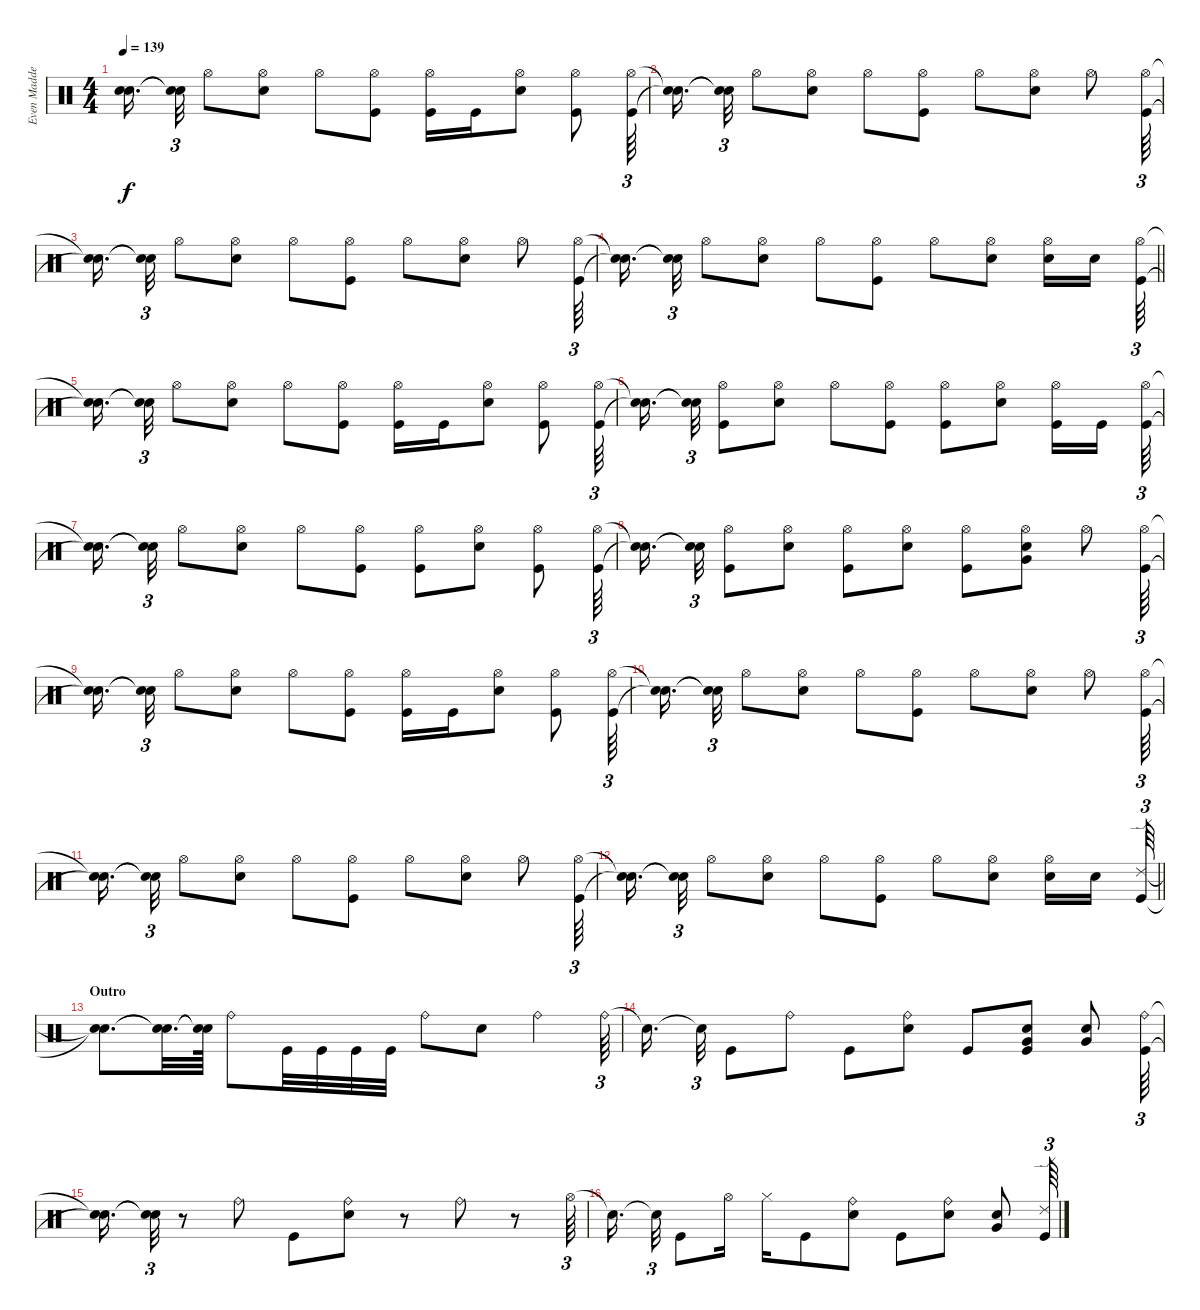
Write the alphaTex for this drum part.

\track ("Even Madden - Drums" "Even Madde") {instrument percussion}
\staff {score}
\articulation defaults
\ts (4 4)
\tempo 139
\clef neutral
\ks c
("Snare (hit)"{t} "Snare (hit)"{t}).16{d dy f beam splitsecondary} ("Snare (hit)"{t} "Snare (hit)"{t}).32{tu (3 2)} "Hi-Hat (open)".8 ("Hi-Hat (open)" "Snare (hit) 2").8 "Hi-Hat (open)".8 ("Hi-Hat (open)" "Kick (hit)").8 ("Hi-Hat (open)" "Kick (hit)").16 "Kick (hit)".16 ("Hi-Hat (open)" "Snare (hit) 2").8 ("Hi-Hat (open)" "Kick (hit)").8 ("Hi-Hat (open)" "Kick (hit)").64{tu (3 2)} |
("Snare (hit)"{t} "Snare (hit)"{t}).16{d beam splitsecondary} ("Snare (hit)"{t} "Snare (hit)"{t}).32{tu (3 2)} "Hi-Hat (open)".8 ("Hi-Hat (open)" "Snare (hit) 2").8 "Hi-Hat (open)".8 ("Hi-Hat (open)" "Kick (hit)").8 "Hi-Hat (open)".8 ("Hi-Hat (open)" "Snare (hit) 2").8 "Hi-Hat (open)".8 ("Hi-Hat (open)" "Kick (hit)").64{tu (3 2)} |
("Snare (hit)"{t} "Snare (hit)"{t}).16{d beam splitsecondary} ("Snare (hit)"{t} "Snare (hit)"{t}).32{tu (3 2)} "Hi-Hat (open)".8 ("Hi-Hat (open)" "Snare (hit) 2").8 "Hi-Hat (open)".8 ("Hi-Hat (open)" "Kick (hit)").8 "Hi-Hat (open)".8 ("Hi-Hat (open)" "Snare (hit) 2").8 "Hi-Hat (open)".8 ("Hi-Hat (open)" "Kick (hit)").64{tu (3 2)} |
\barLineRight lightlight
("Snare (hit)"{t} "Snare (hit)"{t}).16{d beam splitsecondary} ("Snare (hit)"{t} "Snare (hit)"{t}).32{tu (3 2)} "Hi-Hat (open)".8 ("Hi-Hat (open)" "Snare (hit) 2").8 "Hi-Hat (open)".8 ("Hi-Hat (open)" "Kick (hit)").8 "Hi-Hat (open)".8 ("Hi-Hat (open)" "Snare (hit) 2").8 ("Hi-Hat (open)" "Snare (hit) 2").16 "Snare (hit) 2".16{beam splitsecondary} ("Hi-Hat (open)" "Kick (hit)").64{tu (3 2)} |
("Snare (hit)"{t} "Snare (hit)"{t}).16{d beam splitsecondary} ("Snare (hit)"{t} "Snare (hit)"{t}).32{tu (3 2)} "Hi-Hat (open)".8 ("Hi-Hat (open)" "Snare (hit) 2").8 "Hi-Hat (open)".8 ("Hi-Hat (open)" "Kick (hit)").8 ("Hi-Hat (open)" "Kick (hit)").16 "Kick (hit)".16 ("Hi-Hat (open)" "Snare (hit) 2").8 ("Hi-Hat (open)" "Kick (hit)").8 ("Hi-Hat (open)" "Kick (hit)").64{tu (3 2)} |
("Snare (hit)"{t} "Snare (hit)"{t}).16{d beam splitsecondary} ("Snare (hit)"{t} "Snare (hit)"{t}).32{tu (3 2)} ("Hi-Hat (open)" "Kick (hit)").8 ("Hi-Hat (open)" "Snare (hit) 2").8 "Hi-Hat (open)".8 ("Hi-Hat (open)" "Kick (hit)").8 ("Hi-Hat (open)" "Kick (hit)").8 ("Hi-Hat (open)" "Snare (hit) 2").8 ("Hi-Hat (open)" "Kick (hit)").16 "Kick (hit)".16{beam splitsecondary} ("Hi-Hat (open)" "Kick (hit)").64{tu (3 2)} |
("Snare (hit)"{t} "Snare (hit)"{t}).16{d beam splitsecondary} ("Snare (hit)"{t} "Snare (hit)"{t}).32{tu (3 2)} "Hi-Hat (open)".8 ("Hi-Hat (open)" "Snare (hit) 2").8 "Hi-Hat (open)".8 ("Hi-Hat (open)" "Kick (hit)").8 ("Hi-Hat (open)" "Kick (hit)").8 ("Hi-Hat (open)" "Snare (hit) 2").8 ("Hi-Hat (open)" "Kick (hit)").8 ("Hi-Hat (open)" "Kick (hit)").64{tu (3 2)} |
("Snare (hit)"{t} "Snare (hit)"{t}).16{d beam splitsecondary} ("Snare (hit)"{t} "Snare (hit)"{t}).32{tu (3 2)} ("Hi-Hat (open)" "Kick (hit)").8 ("Hi-Hat (open)" "Snare (hit) 2").8 ("Hi-Hat (open)" "Kick (hit)").8 ("Hi-Hat (open)" "Snare (hit) 2").8 ("Hi-Hat (open)" "Kick (hit)").8 ("Hi-Hat (open)" "Snare (hit) 2" "Very Low Tom (hit)").8 "Hi-Hat (open)".8 ("Hi-Hat (open)" "Kick (hit)").64{tu (3 2)} |
("Snare (hit)"{t} "Snare (hit)"{t}).16{d beam splitsecondary} ("Snare (hit)"{t} "Snare (hit)"{t}).32{tu (3 2)} "Hi-Hat (open)".8 ("Hi-Hat (open)" "Snare (hit) 2").8 "Hi-Hat (open)".8 ("Hi-Hat (open)" "Kick (hit)").8 ("Hi-Hat (open)" "Kick (hit)").16 "Kick (hit)".16 ("Hi-Hat (open)" "Snare (hit) 2").8 ("Hi-Hat (open)" "Kick (hit)").8 ("Hi-Hat (open)" "Kick (hit)").64{tu (3 2)} |
("Snare (hit)"{t} "Snare (hit)"{t}).16{d beam splitsecondary} ("Snare (hit)"{t} "Snare (hit)"{t}).32{tu (3 2)} "Hi-Hat (open)".8 ("Hi-Hat (open)" "Snare (hit) 2").8 "Hi-Hat (open)".8 ("Hi-Hat (open)" "Kick (hit)").8 "Hi-Hat (open)".8 ("Hi-Hat (open)" "Snare (hit) 2").8 "Hi-Hat (open)".8 ("Hi-Hat (open)" "Kick (hit)").64{tu (3 2)} |
("Snare (hit)"{t} "Snare (hit)"{t}).16{d beam splitsecondary} ("Snare (hit)"{t} "Snare (hit)"{t}).32{tu (3 2)} "Hi-Hat (open)".8 ("Hi-Hat (open)" "Snare (hit) 2").8 "Hi-Hat (open)".8 ("Hi-Hat (open)" "Kick (hit)").8 "Hi-Hat (open)".8 ("Hi-Hat (open)" "Snare (hit) 2").8 "Hi-Hat (open)".8 ("Hi-Hat (open)" "Kick (hit)").64{tu (3 2)} |
\barLineRight lightlight
("Snare (hit)"{t} "Snare (hit)"{t}).16{d beam splitsecondary} ("Snare (hit)"{t} "Snare (hit)"{t}).32{tu (3 2)} "Hi-Hat (open)".8 ("Hi-Hat (open)" "Snare (hit) 2").8 "Hi-Hat (open)".8 ("Hi-Hat (open)" "Kick (hit)").8 "Hi-Hat (open)".8 ("Hi-Hat (open)" "Snare (hit) 2").8 ("Hi-Hat (open)" "Snare (hit) 2").16 "Snare (hit) 2".16{beam splitsecondary} ("Ride (edge) 2" "Kick (hit)").64{tu (3 2)} |
\section ("" "Outro")
("Snare (hit)"{t} "Snare (hit)"{t}).8{d} ("Snare (hit)"{t} "Snare (hit)"{t}).32{d} ("Snare (hit)"{t} "Snare (hit)"{t}).64 "Ride (bell)".8 "Kick (hit)".32 "Kick (hit)".32 "Kick (hit)".32 "Kick (hit)".32 "Ride (bell)".8 "Snare (hit) 2".8 "Ride (bell)".4 "Ride (bell)".64{tu (3 2)} |
"Snare (hit)"{t}.16{d beam splitsecondary} "Snare (hit)"{t}.32{tu (3 2)} "Kick (hit)".8 "Ride (bell)".8 "Kick (hit)".8 ("Ride (bell)" "Snare (hit) 2").8 "Kick (hit)".8 ("Snare (hit) 2" "Kick (hit)" "Very Low Tom (hit)").8 ("Snare (hit) 2" "Very Low Tom (hit)").8 ("Ride (bell)" "Kick (hit)").64{tu (3 2)} |
("Snare (hit)"{t} "Snare (hit)"{t}).16{d} ("Snare (hit)"{t} "Snare (hit)"{t}).32{tu (3 2)} r.8 "Ride (bell)".8 "Kick (hit)".8 ("Ride (bell)" "Snare (hit) 2").8 r.8 "Ride (bell)".8 r.8 "Hi-Hat (open)".64{tu (3 2)} |
"Snare (hit)"{t}.16{d beam splitsecondary} "Snare (hit)"{t}.32{tu (3 2)} "Kick (hit)".8 "Hi-Hat (open)".16 "Hi-Hat (closed)".16 "Kick (hit)".8 ("Snare (hit) 2" "Ride (bell)").8 "Kick (hit)".8 ("Snare (hit) 2" "Ride (bell)").8 ("Snare (hit) 2" "Very Low Tom (hit)").8 ("Ride (edge) 2" "Kick (hit)").64{tu (3 2)}
